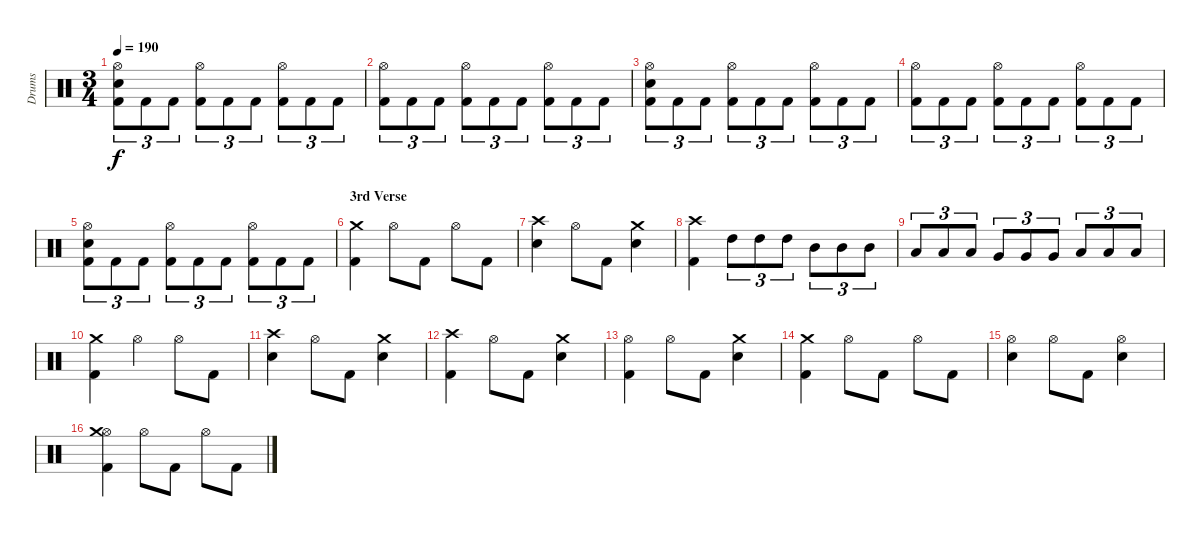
\track ("Drums" "Drums") {instrument percussion}
\staff {score}
\articulation defaults
\ts (3 4)
\tempo 190
\clef neutral
\ks c
("Kick (hit) 2" "Electric Snare (hit)" "Hi-Hat (open)").8{tu (3 2) dy f} "Kick (hit) 2".8{tu (3 2)} "Kick (hit) 2".8{tu (3 2)} ("Kick (hit) 2" "Hi-Hat (open)").8{tu (3 2)} "Kick (hit) 2".8{tu (3 2)} "Kick (hit) 2".8{tu (3 2)} ("Kick (hit) 2" "Hi-Hat (open)").8{tu (3 2)} "Kick (hit) 2".8{tu (3 2)} "Kick (hit) 2".8{tu (3 2)} |
("Kick (hit) 2" "Hi-Hat (open)").8{tu (3 2)} "Kick (hit) 2".8{tu (3 2)} "Kick (hit) 2".8{tu (3 2)} ("Kick (hit) 2" "Hi-Hat (open)").8{tu (3 2)} "Kick (hit) 2".8{tu (3 2)} "Kick (hit) 2".8{tu (3 2)} ("Kick (hit) 2" "Hi-Hat (open)").8{tu (3 2)} "Kick (hit) 2".8{tu (3 2)} "Kick (hit) 2".8{tu (3 2)} |
("Kick (hit) 2" "Electric Snare (hit)" "Hi-Hat (open)").8{tu (3 2)} "Kick (hit) 2".8{tu (3 2)} "Kick (hit) 2".8{tu (3 2)} ("Kick (hit) 2" "Hi-Hat (open)").8{tu (3 2)} "Kick (hit) 2".8{tu (3 2)} "Kick (hit) 2".8{tu (3 2)} ("Kick (hit) 2" "Hi-Hat (open)").8{tu (3 2)} "Kick (hit) 2".8{tu (3 2)} "Kick (hit) 2".8{tu (3 2)} |
("Kick (hit) 2" "Hi-Hat (open)").8{tu (3 2)} "Kick (hit) 2".8{tu (3 2)} "Kick (hit) 2".8{tu (3 2)} ("Kick (hit) 2" "Hi-Hat (open)").8{tu (3 2)} "Kick (hit) 2".8{tu (3 2)} "Kick (hit) 2".8{tu (3 2)} ("Kick (hit) 2" "Hi-Hat (open)").8{tu (3 2)} "Kick (hit) 2".8{tu (3 2)} "Kick (hit) 2".8{tu (3 2)} |
("Kick (hit) 2" "Electric Snare (hit)" "Hi-Hat (open)").8{tu (3 2)} "Kick (hit) 2".8{tu (3 2)} "Kick (hit) 2".8{tu (3 2)} ("Kick (hit) 2" "Hi-Hat (open)").8{tu (3 2)} "Kick (hit) 2".8{tu (3 2)} "Kick (hit) 2".8{tu (3 2)} ("Kick (hit) 2" "Hi-Hat (open)").8{tu (3 2)} "Kick (hit) 2".8{tu (3 2)} "Kick (hit) 2".8{tu (3 2)} |
\section ("" "3rd Verse")
("Kick (hit) 2" "Crash medium (hit)").4 "Hi-Hat (open)".8 "Kick (hit) 2".8 "Hi-Hat (open)".8 "Kick (hit) 2".8 |
("Electric Snare (hit)" "Crash high (hit)").4 "Hi-Hat (open)".8 "Kick (hit) 2".8 ("Electric Snare (hit)" "Crash medium (hit)").4 |
("Kick (hit) 2" "Crash high (hit)").4 "High Tom (hit)".8{tu (3 2)} "High Tom (hit)".8{tu (3 2)} "High Tom (hit)".8{tu (3 2)} "Mid Tom (hit)".8{tu (3 2)} "Mid Tom (hit)".8{tu (3 2)} "Mid Tom (hit)".8{tu (3 2)} |
"Low Tom (hit)".8{tu (3 2)} "Low Tom (hit)".8{tu (3 2)} "Low Tom (hit)".8{tu (3 2)} "Very Low Tom (hit)".8{tu (3 2)} "Very Low Tom (hit)".8{tu (3 2)} "Very Low Tom (hit)".8{tu (3 2)} "Low Floor Tom (hit)".8{tu (3 2)} "Low Floor Tom (hit)".8{tu (3 2)} "Low Floor Tom (hit)".8{tu (3 2)} |
("Kick (hit) 2" "Crash medium (hit)").4 "Hi-Hat (open)".4 "Hi-Hat (open)".8 "Kick (hit) 2".8 |
("Electric Snare (hit)" "Crash high (hit)").4 "Hi-Hat (open)".8 "Kick (hit) 2".8 ("Electric Snare (hit)" "Crash medium (hit)").4 |
("Kick (hit) 2" "Crash high (hit)").4 "Hi-Hat (open)".8 "Kick (hit) 2".8 ("Electric Snare (hit)" "Crash medium (hit)").4 |
("Kick (hit) 2" "Hi-Hat (open)").4 "Hi-Hat (open)".8 "Kick (hit) 2".8 ("Electric Snare (hit)" "Crash medium (hit)").4 |
("Kick (hit) 2" "Crash medium (hit)").4 "Hi-Hat (open)".8 "Kick (hit) 2".8 "Hi-Hat (open)".8 "Kick (hit) 2".8 |
("Electric Snare (hit)" "Hi-Hat (open)").4 "Hi-Hat (open)".8 "Kick (hit) 2".8 ("Electric Snare (hit)" "Hi-Hat (open)").4 |
("Kick (hit) 2" "Hi-Hat (open)" "Crash medium (hit)").4 "Hi-Hat (open)".8 "Kick (hit) 2".8 "Hi-Hat (open)".8 "Kick (hit) 2".8
